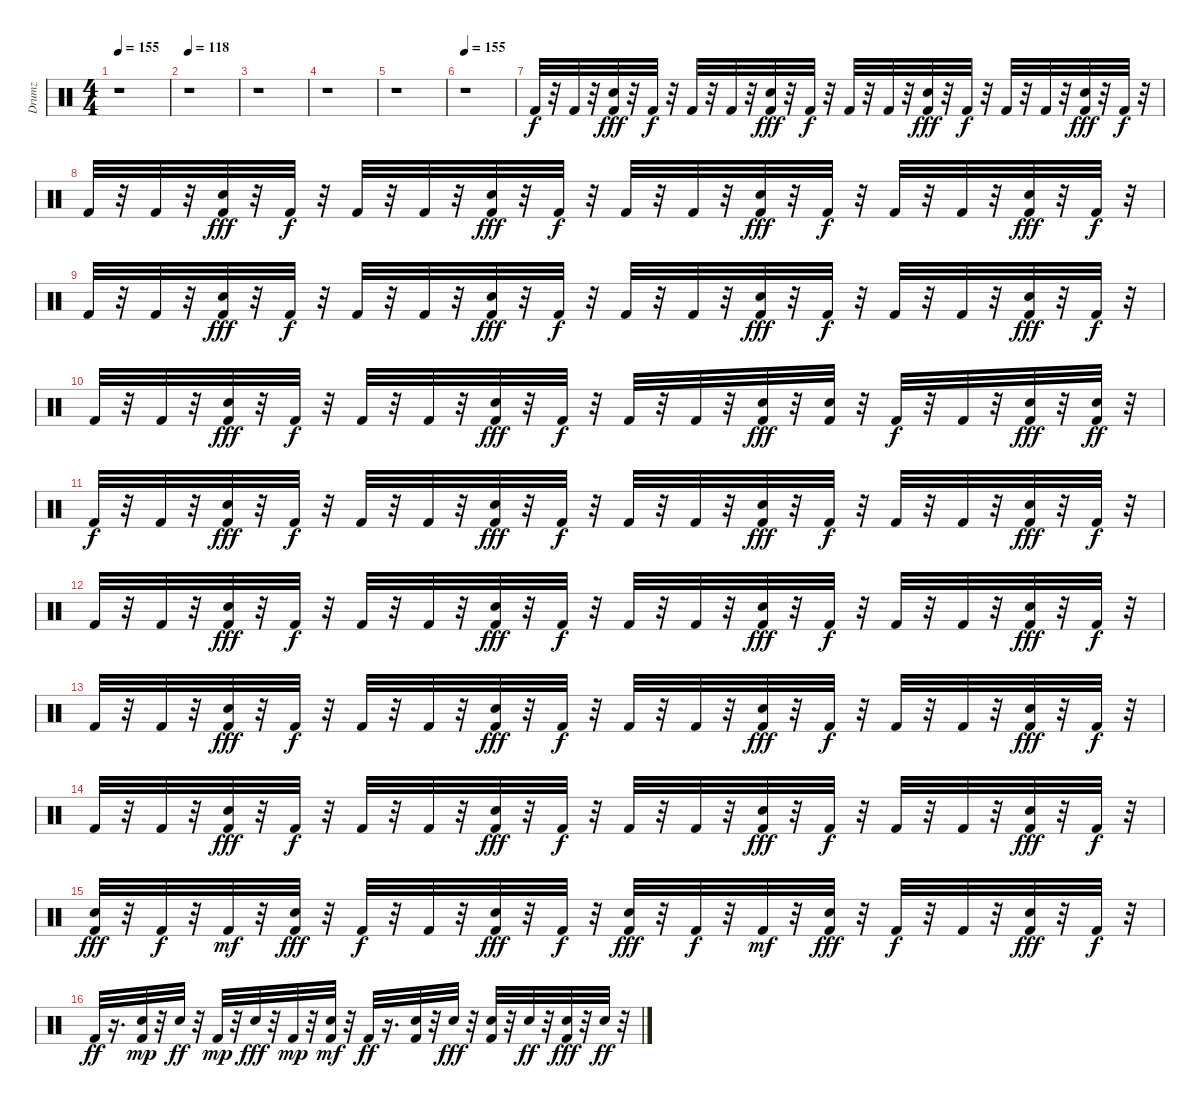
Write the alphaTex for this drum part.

\track ("Drumz" "Drumz") {instrument percussion}
\staff {score}
\articulation defaults
\ts (4 4)
\tempo 155
\clef neutral
\ks c
r.1{dy f} |
\tempo 118
r.1 |
r.1 |
r.1 |
r.1 |
\tempo 155
r.1 |
"Kick (hit) 2".32 r.32 "Kick (hit) 2".32 r.32 ("Kick (hit) 2" "Snare (hit) 2").32{dy fff} r.32 "Kick (hit) 2".32{dy f} r.32 "Kick (hit) 2".32 r.32 "Kick (hit) 2".32 r.32 ("Kick (hit) 2" "Snare (hit) 2").32{dy fff} r.32 "Kick (hit) 2".32{dy f} r.32 "Kick (hit) 2".32 r.32 "Kick (hit) 2".32 r.32 ("Kick (hit) 2" "Snare (hit) 2").32{dy fff} r.32 "Kick (hit) 2".32{dy f} r.32 "Kick (hit) 2".32 r.32 "Kick (hit) 2".32 r.32 ("Kick (hit) 2" "Snare (hit) 2").32{dy fff} r.32 "Kick (hit) 2".32{dy f} r.32 |
"Kick (hit) 2".32 r.32 "Kick (hit) 2".32 r.32 ("Kick (hit) 2" "Snare (hit) 2").32{dy fff} r.32 "Kick (hit) 2".32{dy f} r.32 "Kick (hit) 2".32 r.32 "Kick (hit) 2".32 r.32 ("Kick (hit) 2" "Snare (hit) 2").32{dy fff} r.32 "Kick (hit) 2".32{dy f} r.32 "Kick (hit) 2".32 r.32 "Kick (hit) 2".32 r.32 ("Kick (hit) 2" "Snare (hit) 2").32{dy fff} r.32 "Kick (hit) 2".32{dy f} r.32 "Kick (hit) 2".32 r.32 "Kick (hit) 2".32 r.32 ("Kick (hit) 2" "Snare (hit) 2").32{dy fff} r.32 "Kick (hit) 2".32{dy f} r.32 |
"Kick (hit) 2".32 r.32 "Kick (hit) 2".32 r.32 ("Kick (hit) 2" "Snare (hit) 2").32{dy fff} r.32 "Kick (hit) 2".32{dy f} r.32 "Kick (hit) 2".32 r.32 "Kick (hit) 2".32 r.32 ("Kick (hit) 2" "Snare (hit) 2").32{dy fff} r.32 "Kick (hit) 2".32{dy f} r.32 "Kick (hit) 2".32 r.32 "Kick (hit) 2".32 r.32 ("Kick (hit) 2" "Snare (hit) 2").32{dy fff} r.32 "Kick (hit) 2".32{dy f} r.32 "Kick (hit) 2".32 r.32 "Kick (hit) 2".32 r.32 ("Kick (hit) 2" "Snare (hit) 2").32{dy fff} r.32 "Kick (hit) 2".32{dy f} r.32 |
"Kick (hit) 2".32 r.32 "Kick (hit) 2".32 r.32 ("Kick (hit) 2" "Snare (hit) 2").32{dy fff} r.32 "Kick (hit) 2".32{dy f} r.32 "Kick (hit) 2".32 r.32 "Kick (hit) 2".32 r.32 ("Kick (hit) 2" "Snare (hit) 2").32{dy fff} r.32 "Kick (hit) 2".32{dy f} r.32 "Kick (hit) 2".32 r.32 "Kick (hit) 2".32 r.32 ("Kick (hit) 2" "Snare (hit) 2").32{dy fff} r.32 ("Kick (hit) 2" "Snare (hit) 2").32 r.32 "Kick (hit) 2".32{dy f} r.32 "Kick (hit) 2".32 r.32 ("Kick (hit) 2" "Snare (hit) 2").32{dy fff} r.32 ("Kick (hit) 2" "Snare (hit) 2").32{dy ff} r.32 |
"Kick (hit) 2".32{dy f} r.32 "Kick (hit) 2".32 r.32 ("Kick (hit) 2" "Snare (hit) 2").32{dy fff} r.32 "Kick (hit) 2".32{dy f} r.32 "Kick (hit) 2".32 r.32 "Kick (hit) 2".32 r.32 ("Kick (hit) 2" "Snare (hit) 2").32{dy fff} r.32 "Kick (hit) 2".32{dy f} r.32 "Kick (hit) 2".32 r.32 "Kick (hit) 2".32 r.32 ("Kick (hit) 2" "Snare (hit) 2").32{dy fff} r.32 "Kick (hit) 2".32{dy f} r.32 "Kick (hit) 2".32 r.32 "Kick (hit) 2".32 r.32 ("Kick (hit) 2" "Snare (hit) 2").32{dy fff} r.32 "Kick (hit) 2".32{dy f} r.32 |
"Kick (hit) 2".32 r.32 "Kick (hit) 2".32 r.32 ("Kick (hit) 2" "Snare (hit) 2").32{dy fff} r.32 "Kick (hit) 2".32{dy f} r.32 "Kick (hit) 2".32 r.32 "Kick (hit) 2".32 r.32 ("Kick (hit) 2" "Snare (hit) 2").32{dy fff} r.32 "Kick (hit) 2".32{dy f} r.32 "Kick (hit) 2".32 r.32 "Kick (hit) 2".32 r.32 ("Kick (hit) 2" "Snare (hit) 2").32{dy fff} r.32 "Kick (hit) 2".32{dy f} r.32 "Kick (hit) 2".32 r.32 "Kick (hit) 2".32 r.32 ("Kick (hit) 2" "Snare (hit) 2").32{dy fff} r.32 "Kick (hit) 2".32{dy f} r.32 |
"Kick (hit) 2".32 r.32 "Kick (hit) 2".32 r.32 ("Kick (hit) 2" "Snare (hit) 2").32{dy fff} r.32 "Kick (hit) 2".32{dy f} r.32 "Kick (hit) 2".32 r.32 "Kick (hit) 2".32 r.32 ("Kick (hit) 2" "Snare (hit) 2").32{dy fff} r.32 "Kick (hit) 2".32{dy f} r.32 "Kick (hit) 2".32 r.32 "Kick (hit) 2".32 r.32 ("Kick (hit) 2" "Snare (hit) 2").32{dy fff} r.32 "Kick (hit) 2".32{dy f} r.32 "Kick (hit) 2".32 r.32 "Kick (hit) 2".32 r.32 ("Kick (hit) 2" "Snare (hit) 2").32{dy fff} r.32 "Kick (hit) 2".32{dy f} r.32 |
"Kick (hit) 2".32 r.32 "Kick (hit) 2".32 r.32 ("Kick (hit) 2" "Snare (hit) 2").32{dy fff} r.32 "Kick (hit) 2".32{dy f} r.32 "Kick (hit) 2".32 r.32 "Kick (hit) 2".32 r.32 ("Kick (hit) 2" "Snare (hit) 2").32{dy fff} r.32 "Kick (hit) 2".32{dy f} r.32 "Kick (hit) 2".32 r.32 "Kick (hit) 2".32 r.32 ("Kick (hit) 2" "Snare (hit) 2").32{dy fff} r.32 "Kick (hit) 2".32{dy f} r.32 "Kick (hit) 2".32 r.32 "Kick (hit) 2".32 r.32 ("Kick (hit) 2" "Snare (hit) 2").32{dy fff} r.32 "Kick (hit) 2".32{dy f} r.32 |
("Kick (hit) 2" "Snare (hit) 2").32{dy fff} r.32 "Kick (hit) 2".32{dy f} r.32 "Kick (hit) 2".32{dy mf} r.32 ("Kick (hit) 2" "Snare (hit) 2").32{dy fff} r.32 "Kick (hit) 2".32{dy f} r.32 "Kick (hit) 2".32 r.32 ("Kick (hit) 2" "Snare (hit) 2").32{dy fff} r.32 "Kick (hit) 2".32{dy f} r.32 ("Kick (hit) 2" "Snare (hit) 2").32{dy fff} r.32 "Kick (hit) 2".32{dy f} r.32 "Kick (hit) 2".32{dy mf} r.32 ("Kick (hit) 2" "Snare (hit) 2").32{dy fff} r.32 "Kick (hit) 2".32{dy f} r.32 "Kick (hit) 2".32 r.32 ("Kick (hit) 2" "Snare (hit) 2").32{dy fff} r.32 "Kick (hit) 2".32{dy f} r.32 |
"Kick (hit) 2".32{dy ff} r.16{d} ("Kick (hit) 2" "Snare (hit) 2").32{dy mp} r.32 "Snare (hit) 2".32{dy ff} r.32 "Kick (hit) 2".32{dy mp} r.32 "Snare (hit) 2".32{dy fff} r.32 "Kick (hit) 2".32{dy mp} r.32 ("Snare (hit) 2" "Kick (hit) 2").32{dy mf} r.32 "Kick (hit) 2".32{dy ff} r.16{d} ("Kick (hit) 2" "Snare (hit) 2").32 r.32 "Snare (hit) 2".32{dy fff} r.32 ("Kick (hit) 2" "Snare (hit) 2").32 r.32 "Snare (hit) 2".32{dy ff} r.32 ("Kick (hit) 2" "Snare (hit) 2").32{dy fff} r.32 "Snare (hit) 2".32{dy ff} r.32
